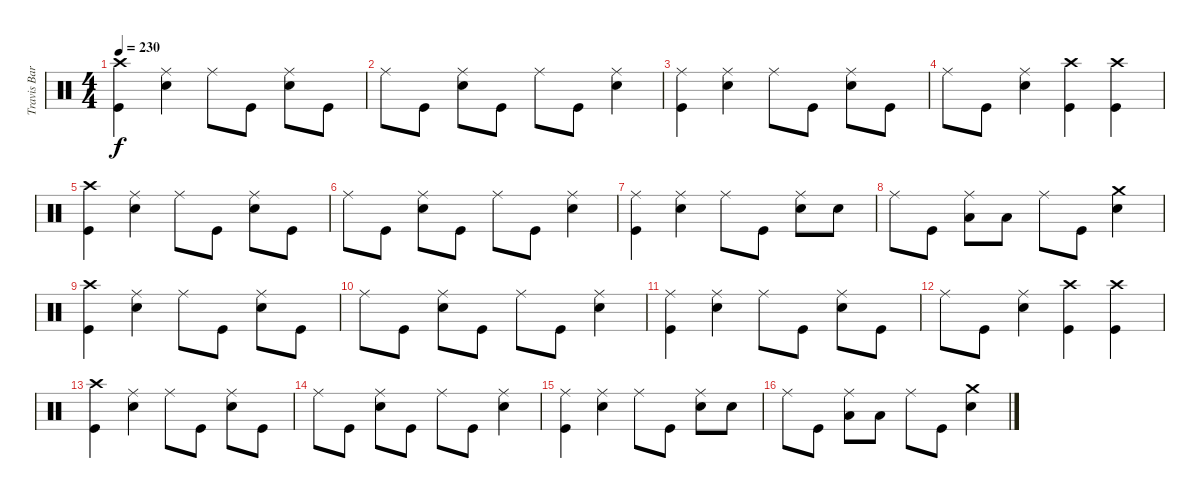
\track ("Travis Barker" "Travis Bar") {instrument percussion}
\staff {score}
\articulation defaults
\ts (4 4)
\tempo 230
\clef neutral
\ks c
("Crash high (hit)" "Kick (hit)").4{dy f} ("Ride (middle)" "Electric Snare (hit)").4 "Ride (middle)".8 "Kick (hit)".8 ("Ride (middle)" "Electric Snare (hit)").8 "Kick (hit)".8 |
"Ride (middle)".8 "Kick (hit)".8 ("Ride (middle)" "Electric Snare (hit)").8 "Kick (hit)".8 "Ride (middle)".8 "Kick (hit)".8 ("Ride (middle)" "Electric Snare (hit)").4 |
("Ride (middle)" "Kick (hit)").4 ("Ride (middle)" "Electric Snare (hit)").4 "Ride (middle)".8 "Kick (hit)".8 ("Ride (middle)" "Electric Snare (hit)").8 "Kick (hit)".8 |
"Ride (middle)".8 "Kick (hit)".8 ("Ride (middle)" "Electric Snare (hit)").4 ("Crash high (hit)" "Kick (hit)").4 ("Crash high (hit)" "Kick (hit)").4 |
("Crash high (hit)" "Kick (hit)").4 ("Ride (middle)" "Electric Snare (hit)").4 "Ride (middle)".8 "Kick (hit)".8 ("Ride (middle)" "Electric Snare (hit)").8 "Kick (hit)".8 |
"Ride (middle)".8 "Kick (hit)".8 ("Ride (middle)" "Electric Snare (hit)").8 "Kick (hit)".8 "Ride (middle)".8 "Kick (hit)".8 ("Ride (middle)" "Electric Snare (hit)").4 |
("Ride (middle)" "Kick (hit)").4 ("Ride (middle)" "Electric Snare (hit)").4 "Ride (middle)".8 "Kick (hit)".8 ("Ride (middle)" "Electric Snare (hit)").8 "Electric Snare (hit)".8 |
"Ride (middle)".8 "Kick (hit)".8 ("Ride (middle)" "Low Tom (hit)").8 "Low Tom (hit)".8 "Ride (middle)".8 "Kick (hit)".8 ("Crash medium (hit)" "Electric Snare (hit)").4 |
("Crash high (hit)" "Kick (hit)").4 ("Ride (middle)" "Electric Snare (hit)").4 "Ride (middle)".8 "Kick (hit)".8 ("Ride (middle)" "Electric Snare (hit)").8 "Kick (hit)".8 |
"Ride (middle)".8 "Kick (hit)".8 ("Ride (middle)" "Electric Snare (hit)").8 "Kick (hit)".8 "Ride (middle)".8 "Kick (hit)".8 ("Ride (middle)" "Electric Snare (hit)").4 |
("Ride (middle)" "Kick (hit)").4 ("Ride (middle)" "Electric Snare (hit)").4 "Ride (middle)".8 "Kick (hit)".8 ("Ride (middle)" "Electric Snare (hit)").8 "Kick (hit)".8 |
"Ride (middle)".8 "Kick (hit)".8 ("Ride (middle)" "Electric Snare (hit)").4 ("Crash high (hit)" "Kick (hit)").4 ("Crash high (hit)" "Kick (hit)").4 |
("Crash high (hit)" "Kick (hit)").4 ("Ride (middle)" "Electric Snare (hit)").4 "Ride (middle)".8 "Kick (hit)".8 ("Ride (middle)" "Electric Snare (hit)").8 "Kick (hit)".8 |
"Ride (middle)".8 "Kick (hit)".8 ("Ride (middle)" "Electric Snare (hit)").8 "Kick (hit)".8 "Ride (middle)".8 "Kick (hit)".8 ("Ride (middle)" "Electric Snare (hit)").4 |
("Ride (middle)" "Kick (hit)").4 ("Ride (middle)" "Electric Snare (hit)").4 "Ride (middle)".8 "Kick (hit)".8 ("Ride (middle)" "Electric Snare (hit)").8 "Electric Snare (hit)".8 |
"Ride (middle)".8 "Kick (hit)".8 ("Ride (middle)" "Low Tom (hit)").8 "Low Tom (hit)".8 "Ride (middle)".8 "Kick (hit)".8 ("Crash medium (hit)" "Electric Snare (hit)").4
